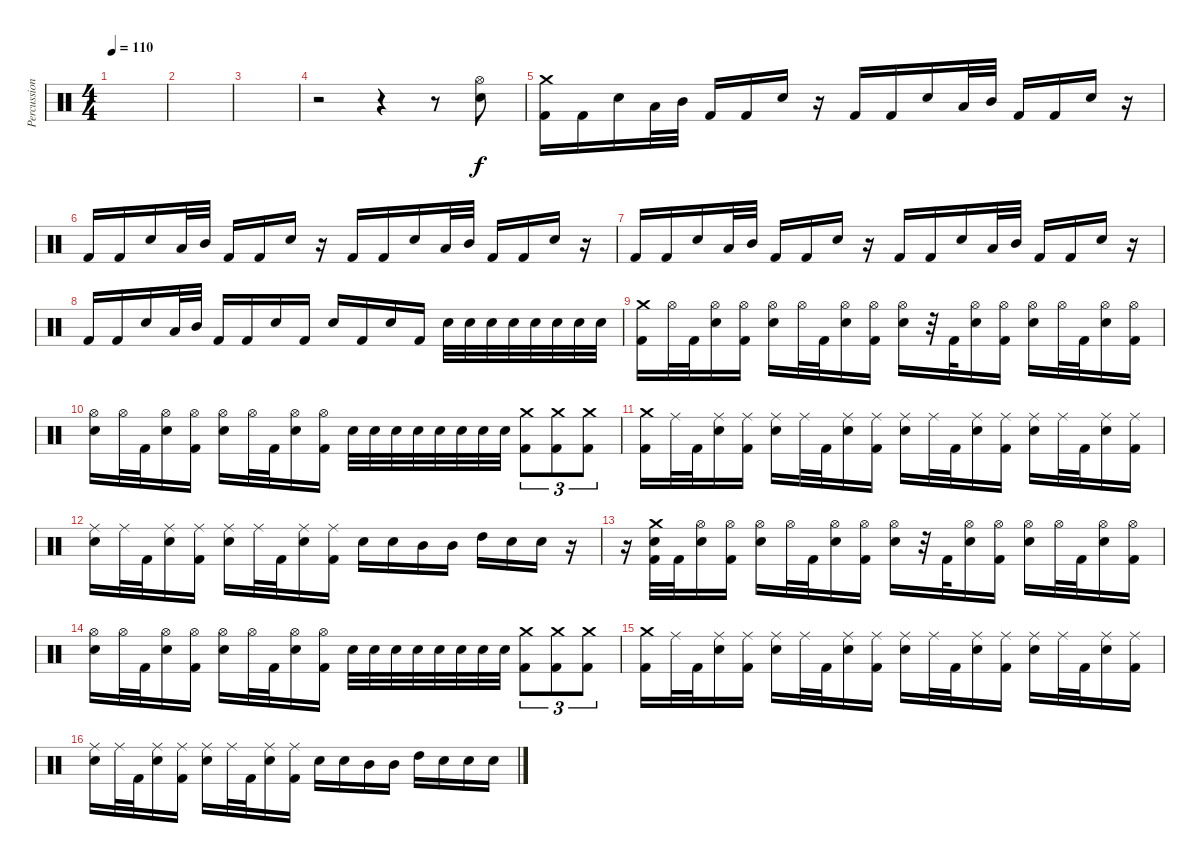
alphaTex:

\track ("Percussion" "Percussion") {instrument percussion}
\staff {score}
\articulation defaults
\ts (4 4)
\tempo 110
\clef neutral
\ks c
|
|
|
r.2 r.4 r.8 ("Hi-Hat (open)" "Electric Snare (hit)").8 |
("Crash medium (hit)" "Kick (hit) 2").16 "Kick (hit) 2".16 "Electric Snare (hit)".16 "Low Floor Tom (hit)".32 "Mid Tom (hit)".32 "Kick (hit) 2".16 "Kick (hit) 2".16 "Electric Snare (hit)".16 r.16 "Kick (hit) 2".16 "Kick (hit) 2".16 "Electric Snare (hit)".16 "Low Floor Tom (hit)".32 "Mid Tom (hit)".32 "Kick (hit) 2".16 "Kick (hit) 2".16 "Electric Snare (hit)".16 r.16 |
"Kick (hit) 2".16 "Kick (hit) 2".16 "Electric Snare (hit)".16 "Low Floor Tom (hit)".32 "Mid Tom (hit)".32 "Kick (hit) 2".16 "Kick (hit) 2".16 "Electric Snare (hit)".16 r.16 "Kick (hit) 2".16 "Kick (hit) 2".16 "Electric Snare (hit)".16 "Low Floor Tom (hit)".32 "Mid Tom (hit)".32 "Kick (hit) 2".16 "Kick (hit) 2".16 "Electric Snare (hit)".16 r.16 |
"Kick (hit) 2".16 "Kick (hit) 2".16 "Electric Snare (hit)".16 "Low Floor Tom (hit)".32 "Mid Tom (hit)".32 "Kick (hit) 2".16 "Kick (hit) 2".16 "Electric Snare (hit)".16 r.16 "Kick (hit) 2".16 "Kick (hit) 2".16 "Electric Snare (hit)".16 "Low Floor Tom (hit)".32 "Mid Tom (hit)".32 "Kick (hit) 2".16 "Kick (hit) 2".16 "Electric Snare (hit)".16 r.16 |
"Kick (hit) 2".16 "Kick (hit) 2".16 "Electric Snare (hit)".16 "Low Floor Tom (hit)".32 "Mid Tom (hit)".32 "Kick (hit) 2".16 "Kick (hit) 2".16 "Electric Snare (hit)".16 "Kick (hit) 2".16 "Electric Snare (hit)".16 "Kick (hit) 2".16 "Electric Snare (hit)".16 "Kick (hit) 2".16 "Electric Snare (hit)".32 "Electric Snare (hit)".32 "Electric Snare (hit)".32 "Electric Snare (hit)".32 "Electric Snare (hit)".32 "Electric Snare (hit)".32 "Electric Snare (hit)".32 "Electric Snare (hit)".32 |
("Crash medium (hit)" "Kick (hit) 2").16 "Hi-Hat (open)".32 "Kick (hit) 2".32 ("Hi-Hat (open)" "Electric Snare (hit)").16 ("Hi-Hat (open)" "Kick (hit) 2").16 ("Hi-Hat (open)" "Electric Snare (hit)").16 "Hi-Hat (open)".32 "Kick (hit) 2".32 ("Hi-Hat (open)" "Electric Snare (hit)").16 ("Hi-Hat (open)" "Kick (hit) 2").16 ("Hi-Hat (open)" "Electric Snare (hit)").16 r.32 "Kick (hit) 2".32 ("Hi-Hat (open)" "Electric Snare (hit)").16 ("Hi-Hat (open)" "Kick (hit) 2").16 ("Hi-Hat (open)" "Electric Snare (hit)").16 "Hi-Hat (open)".32 "Kick (hit) 2".32 ("Hi-Hat (open)" "Electric Snare (hit)").16 ("Hi-Hat (open)" "Kick (hit) 2").16 |
("Hi-Hat (open)" "Electric Snare (hit)").16 "Hi-Hat (open)".32 "Kick (hit) 2".32 ("Hi-Hat (open)" "Electric Snare (hit)").16 ("Hi-Hat (open)" "Kick (hit) 2").16 ("Hi-Hat (open)" "Electric Snare (hit)").16 "Hi-Hat (open)".32 "Kick (hit) 2".32 ("Hi-Hat (open)" "Electric Snare (hit)").16 ("Hi-Hat (open)" "Kick (hit) 2").16 "Electric Snare (hit)".32 "Electric Snare (hit)".32 "Electric Snare (hit)".32 "Electric Snare (hit)".32 "Electric Snare (hit)".32 "Electric Snare (hit)".32 "Electric Snare (hit)".32 "Electric Snare (hit)".32 ("Crash medium (hit)" "Kick (hit) 2").8{tu (3 2)} ("Crash medium (hit)" "Kick (hit) 2").8{tu (3 2)} ("Crash medium (hit)" "Kick (hit) 2").8{tu (3 2)} |
("Crash medium (hit)" "Kick (hit) 2").16 "Ride (middle)".32 "Kick (hit) 2".32 ("Ride (middle)" "Electric Snare (hit)").16 ("Ride (middle)" "Kick (hit) 2").16 ("Ride (middle)" "Electric Snare (hit)").16 "Ride (middle)".32 "Kick (hit) 2".32 ("Ride (middle)" "Electric Snare (hit)").16 ("Ride (middle)" "Kick (hit) 2").16 ("Ride (middle)" "Electric Snare (hit)").16 "Ride (middle)".32 "Kick (hit) 2".32 ("Ride (middle)" "Electric Snare (hit)").16 ("Ride (middle)" "Kick (hit) 2").16 ("Ride (middle)" "Electric Snare (hit)").16 "Ride (middle)".32 "Kick (hit) 2".32 ("Ride (middle)" "Electric Snare (hit)").16 ("Ride (middle)" "Kick (hit) 2").16 |
("Ride (middle)" "Electric Snare (hit)").16 "Ride (middle)".32 "Kick (hit) 2".32 ("Ride (middle)" "Electric Snare (hit)").16 ("Ride (middle)" "Kick (hit) 2").16 ("Ride (middle)" "Electric Snare (hit)").16 "Ride (middle)".32 "Kick (hit) 2".32 ("Ride (middle)" "Electric Snare (hit)").16 ("Ride (middle)" "Kick (hit) 2").16 "Electric Snare (hit)".16 "Electric Snare (hit)".16 "Mid Tom (hit)".16 "Mid Tom (hit)".16 "High Tom (hit)".16 "Electric Snare (hit)".16 "Electric Snare (hit)".16 r.16 |
r.16 ("Crash medium (hit)" "Electric Snare (hit)" "Kick (hit) 2").32 "Kick (hit) 2".32 ("Hi-Hat (open)" "Electric Snare (hit)").16 ("Hi-Hat (open)" "Kick (hit) 2").16 ("Hi-Hat (open)" "Electric Snare (hit)").16 "Hi-Hat (open)".32 "Kick (hit) 2".32 ("Hi-Hat (open)" "Electric Snare (hit)").16 ("Hi-Hat (open)" "Kick (hit) 2").16 ("Hi-Hat (open)" "Electric Snare (hit)").16 r.32 "Kick (hit) 2".32 ("Hi-Hat (open)" "Electric Snare (hit)").16 ("Hi-Hat (open)" "Kick (hit) 2").16 ("Hi-Hat (open)" "Electric Snare (hit)").16 "Hi-Hat (open)".32 "Kick (hit) 2".32 ("Hi-Hat (open)" "Electric Snare (hit)").16 ("Hi-Hat (open)" "Kick (hit) 2").16 |
("Hi-Hat (open)" "Electric Snare (hit)").16 "Hi-Hat (open)".32 "Kick (hit) 2".32 ("Hi-Hat (open)" "Electric Snare (hit)").16 ("Hi-Hat (open)" "Kick (hit) 2").16 ("Hi-Hat (open)" "Electric Snare (hit)").16 "Hi-Hat (open)".32 "Kick (hit) 2".32 ("Hi-Hat (open)" "Electric Snare (hit)").16 ("Hi-Hat (open)" "Kick (hit) 2").16 "Electric Snare (hit)".32 "Electric Snare (hit)".32 "Electric Snare (hit)".32 "Electric Snare (hit)".32 "Electric Snare (hit)".32 "Electric Snare (hit)".32 "Electric Snare (hit)".32 "Electric Snare (hit)".32 ("Crash medium (hit)" "Kick (hit) 2").8{tu (3 2)} ("Crash medium (hit)" "Kick (hit) 2").8{tu (3 2)} ("Crash medium (hit)" "Kick (hit) 2").8{tu (3 2)} |
("Crash medium (hit)" "Kick (hit) 2").16 "Ride (middle)".32 "Kick (hit) 2".32 ("Ride (middle)" "Electric Snare (hit)").16 ("Ride (middle)" "Kick (hit) 2").16 ("Ride (middle)" "Electric Snare (hit)").16 "Ride (middle)".32 "Kick (hit) 2".32 ("Ride (middle)" "Electric Snare (hit)").16 ("Ride (middle)" "Kick (hit) 2").16 ("Ride (middle)" "Electric Snare (hit)").16 "Ride (middle)".32 "Kick (hit) 2".32 ("Ride (middle)" "Electric Snare (hit)").16 ("Ride (middle)" "Kick (hit) 2").16 ("Ride (middle)" "Electric Snare (hit)").16 "Ride (middle)".32 "Kick (hit) 2".32 ("Ride (middle)" "Electric Snare (hit)").16 ("Ride (middle)" "Kick (hit) 2").16 |
("Ride (middle)" "Electric Snare (hit)").16 "Ride (middle)".32 "Kick (hit) 2".32 ("Ride (middle)" "Electric Snare (hit)").16 ("Ride (middle)" "Kick (hit) 2").16 ("Ride (middle)" "Electric Snare (hit)").16 "Ride (middle)".32 "Kick (hit) 2".32 ("Ride (middle)" "Electric Snare (hit)").16 ("Ride (middle)" "Kick (hit) 2").16 "Electric Snare (hit)".16 "Electric Snare (hit)".16 "Mid Tom (hit)".16 "Mid Tom (hit)".16 "High Tom (hit)".16 "Electric Snare (hit)".16 "Electric Snare (hit)".16 "Electric Snare (hit)".16
